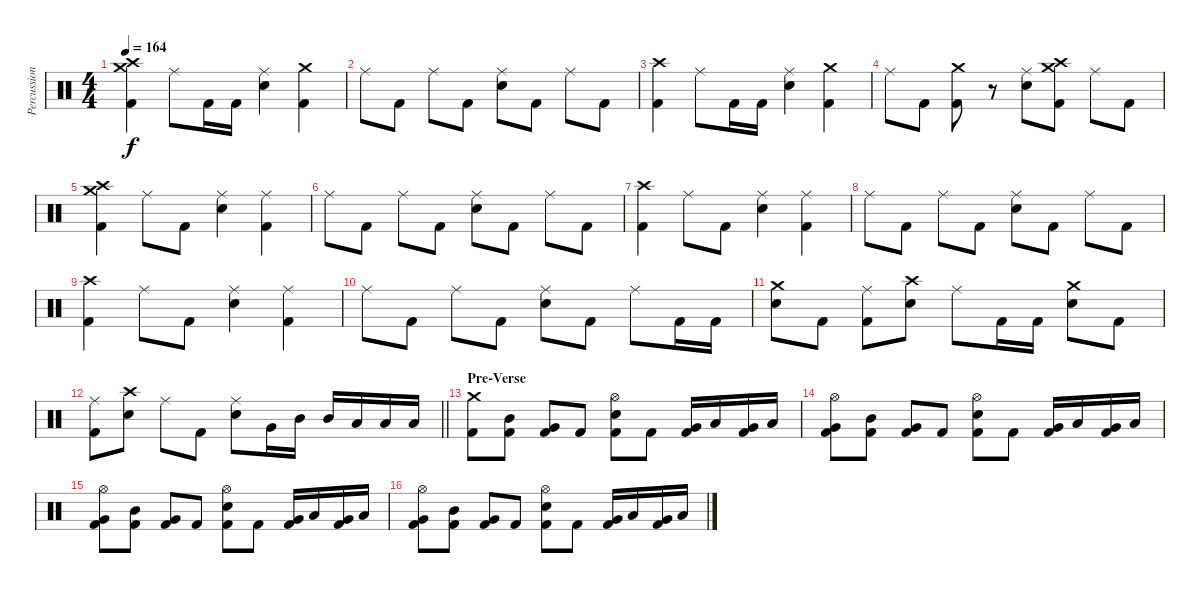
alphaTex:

\track ("Percussions" "Percussion") {instrument percussion}
\staff {score}
\articulation defaults
\ts (4 4)
\tempo 164
\clef neutral
\ks c
("Crash medium (hit)" "Crash high (hit)" "Kick (hit) 2").4{dy f} "Ride (middle)".8 "Kick (hit) 2".16 "Kick (hit) 2".16 ("Ride (middle)" "Snare (hit) 2").4 ("Crash medium (hit)" "Kick (hit) 2").4 |
"Ride (middle)".8 "Kick (hit) 2".8 "Ride (middle)".8 "Kick (hit) 2".8 ("Ride (middle)" "Snare (hit) 2").8 "Kick (hit) 2".8 "Ride (middle)".8 "Kick (hit) 2".8 |
("Crash high (hit)" "Kick (hit) 2").4 "Ride (middle)".8 "Kick (hit) 2".16 "Kick (hit) 2".16 ("Ride (middle)" "Snare (hit) 2").4 ("Crash medium (hit)" "Kick (hit) 2").4 |
"Ride (middle)".8 "Kick (hit) 2".8 ("Crash medium (hit)" "Kick (hit) 2").8 r.8 ("Ride (middle)" "Snare (hit) 2").8 ("Crash medium (hit)" "Crash high (hit)" "Kick (hit) 2").8 "Ride (middle)".8 "Kick (hit) 2".8 |
("Crash medium (hit)" "Crash high (hit)" "Kick (hit) 2").4 "Ride (middle)".8 "Kick (hit) 2".8 ("Ride (middle)" "Snare (hit) 2").4 ("Ride (middle)" "Kick (hit) 2").4 |
"Ride (middle)".8 "Kick (hit) 2".8 "Ride (middle)".8 "Kick (hit) 2".8 ("Ride (middle)" "Snare (hit) 2").8 "Kick (hit) 2".8 "Ride (middle)".8 "Kick (hit) 2".8 |
("Crash high (hit)" "Kick (hit) 2").4 "Ride (middle)".8 "Kick (hit) 2".8 ("Ride (middle)" "Snare (hit) 2").4 ("Ride (middle)" "Kick (hit) 2").4 |
"Ride (middle)".8 "Kick (hit) 2".8 "Ride (middle)".8 "Kick (hit) 2".8 ("Ride (middle)" "Snare (hit) 2").8 "Kick (hit) 2".8 "Ride (middle)".8 "Kick (hit) 2".8 |
("Crash high (hit)" "Kick (hit) 2").4 "Ride (middle)".8 "Kick (hit) 2".8 ("Ride (middle)" "Snare (hit) 2").4 ("Ride (middle)" "Kick (hit) 2").4 |
"Ride (middle)".8 "Kick (hit) 2".8 "Ride (middle)".8 "Kick (hit) 2".8 ("Ride (middle)" "Snare (hit) 2").8 "Kick (hit) 2".8 "Ride (middle)".8 "Kick (hit) 2".16 "Kick (hit) 2".16 |
("Crash medium (hit)" "Snare (hit) 2").8 "Kick (hit) 2".8 ("Ride (middle)" "Kick (hit) 2").8 ("Crash high (hit)" "Snare (hit) 2").8 "Ride (middle)".8 "Kick (hit) 2".16 "Kick (hit) 2".16 ("Crash medium (hit)" "Snare (hit) 2").8 "Kick (hit) 2".8 |
\barLineRight lightlight
("Ride (middle)" "Kick (hit) 2").8 ("Crash high (hit)" "Snare (hit) 2").8 "Ride (middle)".8 "Kick (hit) 2".8 ("Ride (middle)" "Snare (hit) 2").8 "Very Low Tom (hit)".16 "Mid Tom (hit)".16 "Mid Tom (hit)".16 "Low Tom (hit)".16 "Low Tom (hit)".16 "Low Tom (hit)".16 |
\section ("" "Pre-Verse")
("Crash medium (hit)" "Kick (hit) 2").8 ("Mid Tom (hit)" "Kick (hit) 2").8 ("Very Low Tom (hit)" "Kick (hit) 2").8 "Kick (hit) 2".8 ("Hi-Hat (open)" "Snare (hit) 2" "Kick (hit) 2").8 "Kick (hit) 2".8 ("Very Low Tom (hit)" "Kick (hit) 2").16 "Low Tom (hit)".16 ("Very Low Tom (hit)" "Kick (hit) 2").16 "Low Tom (hit)".16 |
("Hi-Hat (open)" "Very Low Tom (hit)" "Kick (hit) 2").8 ("Mid Tom (hit)" "Kick (hit) 2").8 ("Very Low Tom (hit)" "Kick (hit) 2").8 "Kick (hit) 2".8 ("Hi-Hat (open)" "Snare (hit) 2" "Kick (hit) 2").8 "Kick (hit) 2".8 ("Very Low Tom (hit)" "Kick (hit) 2").16 "Low Tom (hit)".16 ("Very Low Tom (hit)" "Kick (hit) 2").16 "Low Tom (hit)".16 |
("Hi-Hat (open)" "Very Low Tom (hit)" "Kick (hit) 2").8 ("Mid Tom (hit)" "Kick (hit) 2").8 ("Very Low Tom (hit)" "Kick (hit) 2").8 "Kick (hit) 2".8 ("Hi-Hat (open)" "Snare (hit) 2" "Kick (hit) 2").8 "Kick (hit) 2".8 ("Very Low Tom (hit)" "Kick (hit) 2").16 "Low Tom (hit)".16 ("Very Low Tom (hit)" "Kick (hit) 2").16 "Low Tom (hit)".16 |
("Hi-Hat (open)" "Very Low Tom (hit)" "Kick (hit) 2").8 ("Mid Tom (hit)" "Kick (hit) 2").8 ("Very Low Tom (hit)" "Kick (hit) 2").8 "Kick (hit) 2".8 ("Hi-Hat (open)" "Snare (hit) 2" "Kick (hit) 2").8 "Kick (hit) 2".8 ("Very Low Tom (hit)" "Kick (hit) 2").16 "Low Tom (hit)".16 ("Very Low Tom (hit)" "Kick (hit) 2").16 "Low Tom (hit)".16
